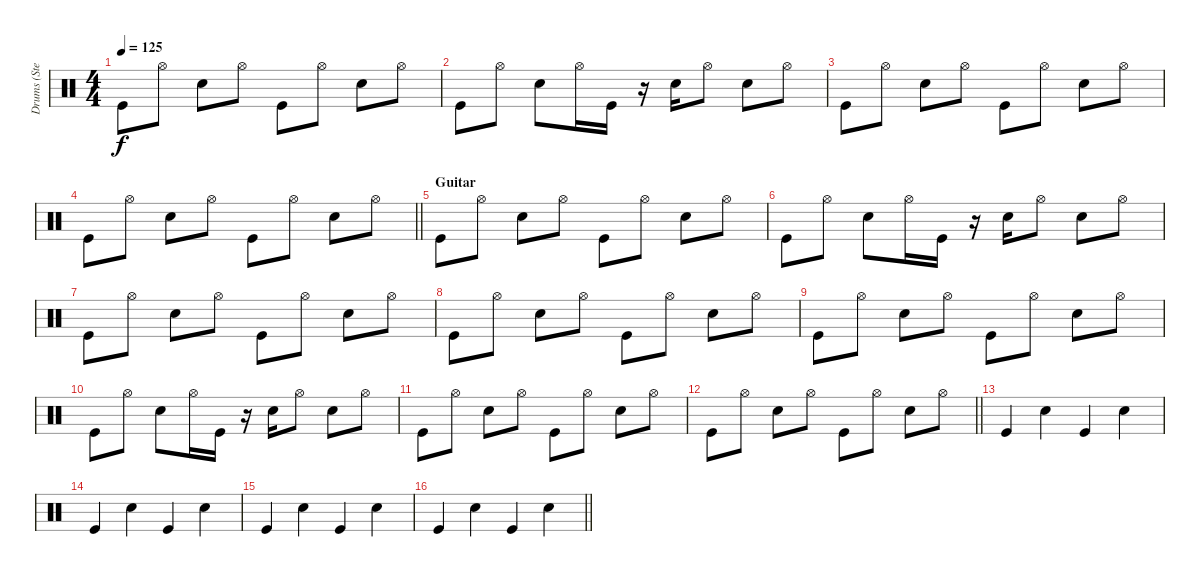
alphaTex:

\track ("Drums (Steve)" "Drums (Ste") {instrument percussion}
\staff {score}
\articulation defaults
\ts (4 4)
\tempo 125
\clef neutral
\ks c "Kick (hit)".8{dy f} "Hi-Hat (open)".8 "Electric Snare (hit)".8 "Hi-Hat (open)".8 "Kick (hit)".8 "Hi-Hat (open)".8 "Electric Snare (hit)".8 "Hi-Hat (open)".8
|
"Kick (hit)".8 "Hi-Hat (open)".8 "Electric Snare (hit)".8 "Hi-Hat (open)".16 "Kick (hit)".16 r.16 "Electric Snare (hit)".16 "Hi-Hat (open)".8 "Electric Snare (hit)".8 "Hi-Hat (open)".8 |
"Kick (hit)".8 "Hi-Hat (open)".8 "Electric Snare (hit)".8 "Hi-Hat (open)".8 "Kick (hit)".8 "Hi-Hat (open)".8 "Electric Snare (hit)".8 "Hi-Hat (open)".8 |
\barLineRight lightlight "Kick (hit)".8 "Hi-Hat (open)".8 "Electric Snare (hit)".8 "Hi-Hat (open)".8 "Kick (hit)".8 "Hi-Hat (open)".8 "Electric Snare (hit)".8 "Hi-Hat (open)".8
|
\section ("" "Guitar")
"Kick (hit)".8 "Hi-Hat (open)".8 "Electric Snare (hit)".8 "Hi-Hat (open)".8 "Kick (hit)".8 "Hi-Hat (open)".8 "Electric Snare (hit)".8 "Hi-Hat (open)".8 |
"Kick (hit)".8 "Hi-Hat (open)".8 "Electric Snare (hit)".8 "Hi-Hat (open)".16 "Kick (hit)".16 r.16 "Electric Snare (hit)".16 "Hi-Hat (open)".8 "Electric Snare (hit)".8 "Hi-Hat (open)".8 |
"Kick (hit)".8 "Hi-Hat (open)".8 "Electric Snare (hit)".8 "Hi-Hat (open)".8 "Kick (hit)".8 "Hi-Hat (open)".8 "Electric Snare (hit)".8 "Hi-Hat (open)".8 |
"Kick (hit)".8 "Hi-Hat (open)".8 "Electric Snare (hit)".8 "Hi-Hat (open)".8 "Kick (hit)".8 "Hi-Hat (open)".8 "Electric Snare (hit)".8 "Hi-Hat (open)".8 |
"Kick (hit)".8 "Hi-Hat (open)".8 "Electric Snare (hit)".8 "Hi-Hat (open)".8 "Kick (hit)".8 "Hi-Hat (open)".8 "Electric Snare (hit)".8 "Hi-Hat (open)".8 |
"Kick (hit)".8 "Hi-Hat (open)".8 "Electric Snare (hit)".8 "Hi-Hat (open)".16 "Kick (hit)".16 r.16 "Electric Snare (hit)".16 "Hi-Hat (open)".8 "Electric Snare (hit)".8 "Hi-Hat (open)".8 |
"Kick (hit)".8 "Hi-Hat (open)".8 "Electric Snare (hit)".8 "Hi-Hat (open)".8 "Kick (hit)".8 "Hi-Hat (open)".8 "Electric Snare (hit)".8 "Hi-Hat (open)".8 |
\barLineRight lightlight "Kick (hit)".8 "Hi-Hat (open)".8 "Electric Snare (hit)".8 "Hi-Hat (open)".8 "Kick (hit)".8 "Hi-Hat (open)".8 "Electric Snare (hit)".8 "Hi-Hat (open)".8
|
"Kick (hit)".4 "Electric Snare (hit)".4 "Kick (hit)".4 "Electric Snare (hit)".4 |
"Kick (hit)".4 "Electric Snare (hit)".4 "Kick (hit)".4 "Electric Snare (hit)".4 |
"Kick (hit)".4 "Electric Snare (hit)".4 "Kick (hit)".4 "Electric Snare (hit)".4 |
\barLineRight lightlight "Kick (hit)".4 "Electric Snare (hit)".4 "Kick (hit)".4 "Electric Snare (hit)".4
